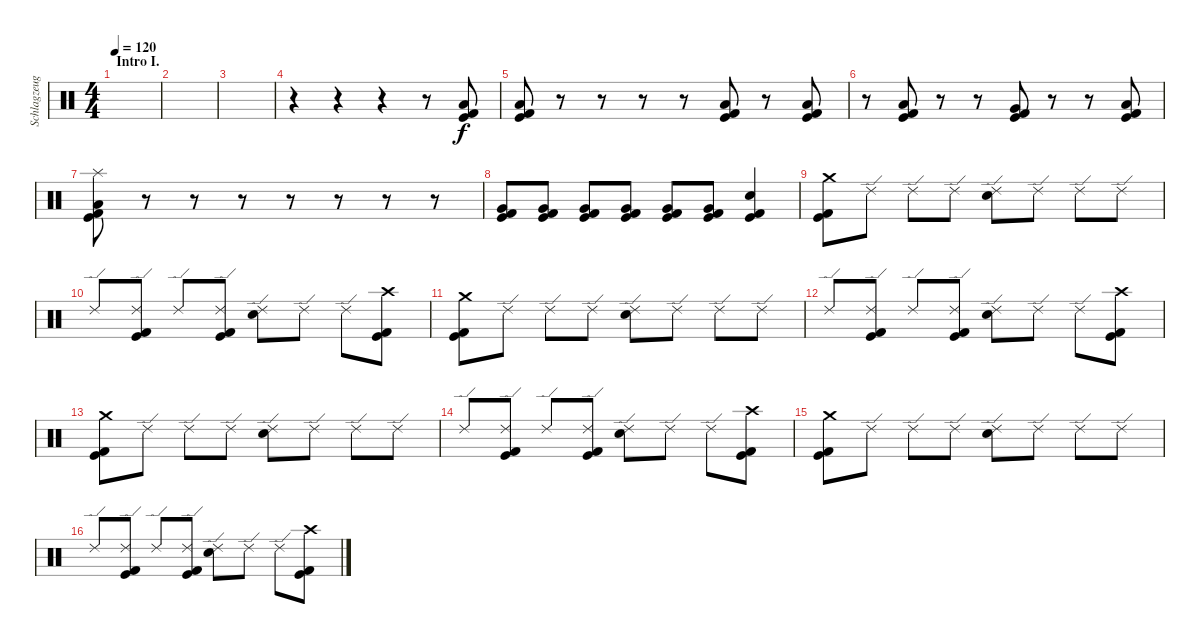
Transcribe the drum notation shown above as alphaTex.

\track ("Schlagzeug" "Schlagzeug") {instrument percussion}
\staff {score}
\articulation defaults
\ts (4 4)
\section ("" "Intro I.")
\tempo 120
\clef neutral
\ks c
|
|
|
r.4 r.4 r.4 r.8 ("Low Floor Tom (hit)" "Kick (hit) 2" "Kick (hit)").8 |
("Low Floor Tom (hit)" "Kick (hit) 2" "Kick (hit)").8 r.8 r.8 r.8 r.8 ("Low Floor Tom (hit)" "Kick (hit) 2" "Kick (hit)").8 r.8 ("Low Floor Tom (hit)" "Kick (hit) 2" "Kick (hit)").8 |
r.8 ("Low Floor Tom (hit)" "Kick (hit) 2" "Kick (hit)").8 r.8 r.8 ("Very Low Tom (hit)" "Kick (hit) 2" "Kick (hit)").8 r.8 r.8 ("Low Tom (hit)" "Kick (hit) 2" "Kick (hit)").8 |
("Low Floor Tom (hit)" "Kick (hit) 2" "Kick (hit)" "Splash (hit)").8 r.8 r.8 r.8 r.8 r.8 r.8{volume 0} r.8 |
("Very Low Tom (hit)" "Kick (hit) 2" "Kick (hit)").8{volume 13} ("Very Low Tom (hit)" "Kick (hit) 2" "Kick (hit)").8 ("Very Low Tom (hit)" "Kick (hit) 2" "Kick (hit)").8 ("Very Low Tom (hit)" "Kick (hit) 2" "Kick (hit)").8 ("Very Low Tom (hit)" "Kick (hit) 2" "Kick (hit)").8 ("Very Low Tom (hit)" "Kick (hit) 2" "Kick (hit)").8 ("Electric Snare (hit)" "Kick (hit) 2" "Kick (hit)").4 |
("Kick (hit) 2" "Kick (hit)" "Crash medium (hit)").8 "Ride (edge) 2".8 "Ride (edge) 2".8 "Ride (edge) 2".8 ("Electric Snare (hit)" "Ride (edge) 2").8 "Ride (edge) 2".8 "Ride (edge) 2".8 "Ride (edge) 2".8 |
"Ride (edge) 2".8 ("Kick (hit) 2" "Kick (hit)" "Ride (edge) 2").8 "Ride (edge) 2".8 ("Kick (hit) 2" "Kick (hit)" "Ride (edge) 2").8 ("Electric Snare (hit)" "Ride (edge) 2").8 "Ride (edge) 2".8 "Ride (edge) 2".8 ("Kick (hit) 2" "Kick (hit)" "Crash high (hit)").8 |
("Kick (hit) 2" "Kick (hit)" "Crash medium (hit)").8 "Ride (edge) 2".8 "Ride (edge) 2".8 "Ride (edge) 2".8 ("Electric Snare (hit)" "Ride (edge) 2").8 "Ride (edge) 2".8 "Ride (edge) 2".8 "Ride (edge) 2".8 |
"Ride (edge) 2".8 ("Kick (hit) 2" "Kick (hit)" "Ride (edge) 2").8 "Ride (edge) 2".8 ("Kick (hit) 2" "Kick (hit)" "Ride (edge) 2").8 ("Electric Snare (hit)" "Ride (edge) 2").8 "Ride (edge) 2".8 "Ride (edge) 2".8 ("Kick (hit) 2" "Kick (hit)" "Crash high (hit)").8 |
("Kick (hit) 2" "Kick (hit)" "Crash medium (hit)").8 "Ride (edge) 2".8 "Ride (edge) 2".8 "Ride (edge) 2".8 ("Electric Snare (hit)" "Ride (edge) 2").8 "Ride (edge) 2".8 "Ride (edge) 2".8 "Ride (edge) 2".8 |
"Ride (edge) 2".8 ("Kick (hit) 2" "Kick (hit)" "Ride (edge) 2").8 "Ride (edge) 2".8 ("Kick (hit) 2" "Kick (hit)" "Ride (edge) 2").8 ("Electric Snare (hit)" "Ride (edge) 2").8 "Ride (edge) 2".8 "Ride (edge) 2".8 ("Kick (hit) 2" "Kick (hit)" "Crash high (hit)").8 |
("Kick (hit) 2" "Kick (hit)" "Crash medium (hit)").8 "Ride (edge) 2".8 "Ride (edge) 2".8 "Ride (edge) 2".8 ("Electric Snare (hit)" "Ride (edge) 2").8 "Ride (edge) 2".8 "Ride (edge) 2".8 "Ride (edge) 2".8 |
"Ride (edge) 2".8 ("Kick (hit) 2" "Kick (hit)" "Ride (edge) 2").8 "Ride (edge) 2".8 ("Kick (hit) 2" "Kick (hit)" "Ride (edge) 2").8 ("Electric Snare (hit)" "Ride (edge) 2").8 "Ride (edge) 2".8 "Ride (edge) 2".8 ("Kick (hit) 2" "Kick (hit)" "Crash high (hit)").8
